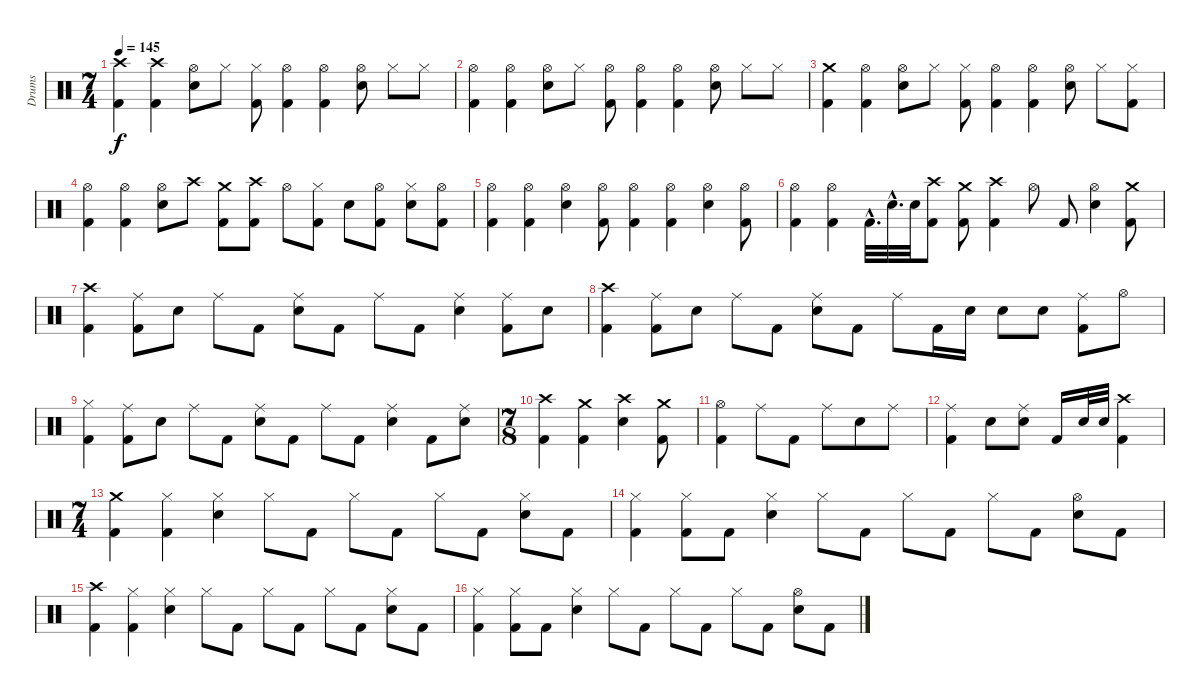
\track ("Drums" "Drums") {instrument percussion}
\staff {score}
\articulation defaults
\ts (7 4)
\tempo 145
\clef neutral
\ks c
("Crash high (hit)" "Kick (hit) 2").4{dy f} ("Crash high (hit)" "Kick (hit) 2").4 ("Hi-Hat (open)" "Snare (hit) 2").8 "Hi-Hat (closed)".8 ("Hi-Hat (closed)" "Kick (hit) 2").8 ("Hi-Hat (open)" "Kick (hit) 2").4 ("Hi-Hat (open)" "Kick (hit) 2").4 ("Hi-Hat (open)" "Snare (hit) 2").8 "Hi-Hat (closed)".8 "Hi-Hat (closed)".8 |
("Hi-Hat (open)" "Kick (hit) 2").4 ("Hi-Hat (open)" "Kick (hit) 2").4 ("Hi-Hat (open)" "Snare (hit) 2").8 "Hi-Hat (closed)".8 ("Hi-Hat (open)" "Kick (hit) 2").8 ("Hi-Hat (open)" "Kick (hit) 2").4 ("Hi-Hat (open)" "Kick (hit) 2").4 ("Hi-Hat (open)" "Snare (hit) 2").8 "Hi-Hat (closed)".8 "Hi-Hat (closed)".8 |
("Crash medium (hit)" "Kick (hit) 2").4 ("Hi-Hat (open)" "Kick (hit) 2").4 ("Hi-Hat (open)" "Snare (hit) 2").8 "Hi-Hat (closed)".8 ("Hi-Hat (closed)" "Kick (hit) 2").8 ("Hi-Hat (open)" "Kick (hit) 2").4 ("Hi-Hat (open)" "Kick (hit) 2").4 ("Hi-Hat (open)" "Snare (hit) 2").8 "Hi-Hat (closed)".8 ("Hi-Hat (closed)" "Kick (hit) 2").8 |
("Hi-Hat (open)" "Kick (hit) 2").4 ("Hi-Hat (open)" "Kick (hit) 2").4 ("Hi-Hat (open)" "Snare (hit) 2").8 "Crash high (hit)".8 ("Crash medium (hit)" "Kick (hit) 2").8 ("Crash high (hit)" "Kick (hit) 2").8 "Hi-Hat (open)".8 ("Hi-Hat (closed)" "Kick (hit) 2").8 "Snare (hit) 2".8 ("Hi-Hat (open)" "Kick (hit) 2").8 ("Hi-Hat (closed)" "Snare (hit) 2").8 ("Hi-Hat (open)" "Kick (hit) 2").8 |
("Hi-Hat (open)" "Kick (hit) 2").4 ("Hi-Hat (open)" "Kick (hit) 2").4 ("Hi-Hat (open)" "Snare (hit) 2").4 ("Hi-Hat (open)" "Kick (hit) 2").8 ("Hi-Hat (open)" "Kick (hit) 2").4 ("Hi-Hat (open)" "Kick (hit) 2").4 ("Hi-Hat (open)" "Snare (hit) 2").4 ("Hi-Hat (open)" "Kick (hit) 2").8 |
("Hi-Hat (open)" "Kick (hit) 2").4 ("Hi-Hat (open)" "Kick (hit) 2").4 "Kick (hit) 2"{hac}.32{d} "Snare (hit) 2"{hac}.32{d} "Snare (hit) 2".32 ("Crash high (hit)" "Kick (hit) 2").8 ("Crash medium (hit)" "Kick (hit) 2").8 ("Crash high (hit)" "Kick (hit) 2").4 "Hi-Hat (open)".8 "Kick (hit) 2".8 ("Hi-Hat (open)" "Snare (hit) 2").4 ("Crash medium (hit)" "Kick (hit) 2").8 |
("Crash high (hit)" "Kick (hit) 2").4 ("Ride (middle)" "Kick (hit) 2").8 "Snare (hit) 2".8 "Ride (middle)".8 "Kick (hit) 2".8 ("Ride (middle)" "Snare (hit) 2").8 "Kick (hit) 2".8 "Ride (middle)".8 "Kick (hit) 2".8 ("Ride (middle)" "Snare (hit) 2").4 ("Ride (middle)" "Kick (hit) 2").8 "Snare (hit) 2".8 |
("Crash high (hit)" "Kick (hit) 2").4 ("Ride (middle)" "Kick (hit) 2").8 "Snare (hit) 2".8 "Ride (middle)".8 "Kick (hit) 2".8 ("Ride (middle)" "Snare (hit) 2").8 "Kick (hit) 2".8 "Ride (middle)".8 "Kick (hit) 2".16 "Snare (hit) 2".16 "Snare (hit) 2".8 "Snare (hit) 2".8 ("Ride (middle)" "Kick (hit) 2").8 "Hi-Hat (open)".8 |
("Hi-Hat (closed)" "Kick (hit) 2").4 ("Ride (middle)" "Kick (hit) 2").8 "Snare (hit) 2".8 "Ride (middle)".8 "Kick (hit) 2".8 ("Ride (middle)" "Snare (hit) 2").8 "Kick (hit) 2".8 "Ride (middle)".8 "Kick (hit) 2".8 ("Ride (middle)" "Snare (hit) 2").4 "Kick (hit) 2".8 ("Ride (middle)" "Snare (hit) 2").8 |
\ts (7 8)
("Crash high (hit)" "Kick (hit) 2").4 ("Crash medium (hit)" "Kick (hit) 2").4 ("Crash high (hit)" "Snare (hit) 2").4 ("Crash medium (hit)" "Kick (hit) 2").8 |
("Hi-Hat (open)" "Kick (hit) 2").4 "Ride (middle)".8 "Kick (hit) 2".8 "Ride (middle)".8 "Snare (hit) 2".8 "Ride (middle)".8 |
("Ride (middle)" "Kick (hit) 2").4 "Snare (hit) 2".8 ("Ride (middle)" "Snare (hit) 2").8 "Kick (hit) 2".16 "Snare (hit) 2".32 "Snare (hit) 2".32 ("Crash high (hit)" "Kick (hit) 2").4 |
\ts (7 4)
("Crash medium (hit)" "Kick (hit) 2").4 ("Hi-Hat (closed)" "Kick (hit) 2").4 ("Hi-Hat (closed)" "Snare (hit) 2").4 "Hi-Hat (closed)".8 "Kick (hit) 2".8 "Hi-Hat (closed)".8 "Kick (hit) 2".8 "Hi-Hat (closed)".8 "Kick (hit) 2".8 ("Hi-Hat (closed)" "Snare (hit) 2").8 "Kick (hit) 2".8 |
("Hi-Hat (closed)" "Kick (hit) 2").4 ("Hi-Hat (closed)" "Kick (hit) 2").8 "Kick (hit) 2".8 ("Hi-Hat (closed)" "Snare (hit) 2").4 "Hi-Hat (closed)".8 "Kick (hit) 2".8 "Hi-Hat (closed)".8 "Kick (hit) 2".8 "Hi-Hat (closed)".8 "Kick (hit) 2".8 ("Hi-Hat (open)" "Snare (hit) 2").8 "Kick (hit) 2".8 |
("Crash high (hit)" "Kick (hit) 2").4 ("Hi-Hat (closed)" "Kick (hit) 2").4 ("Hi-Hat (closed)" "Snare (hit) 2").4 "Hi-Hat (closed)".8 "Kick (hit) 2".8 "Hi-Hat (closed)".8 "Kick (hit) 2".8 "Hi-Hat (closed)".8 "Kick (hit) 2".8 ("Hi-Hat (closed)" "Snare (hit) 2").8 "Kick (hit) 2".8 |
("Hi-Hat (closed)" "Kick (hit) 2").4 ("Hi-Hat (closed)" "Kick (hit) 2").8 "Kick (hit) 2".8 ("Hi-Hat (closed)" "Snare (hit) 2").4 "Hi-Hat (closed)".8 "Kick (hit) 2".8 "Hi-Hat (closed)".8 "Kick (hit) 2".8 "Hi-Hat (closed)".8 "Kick (hit) 2".8 ("Hi-Hat (open)" "Snare (hit) 2").8 "Kick (hit) 2".8
